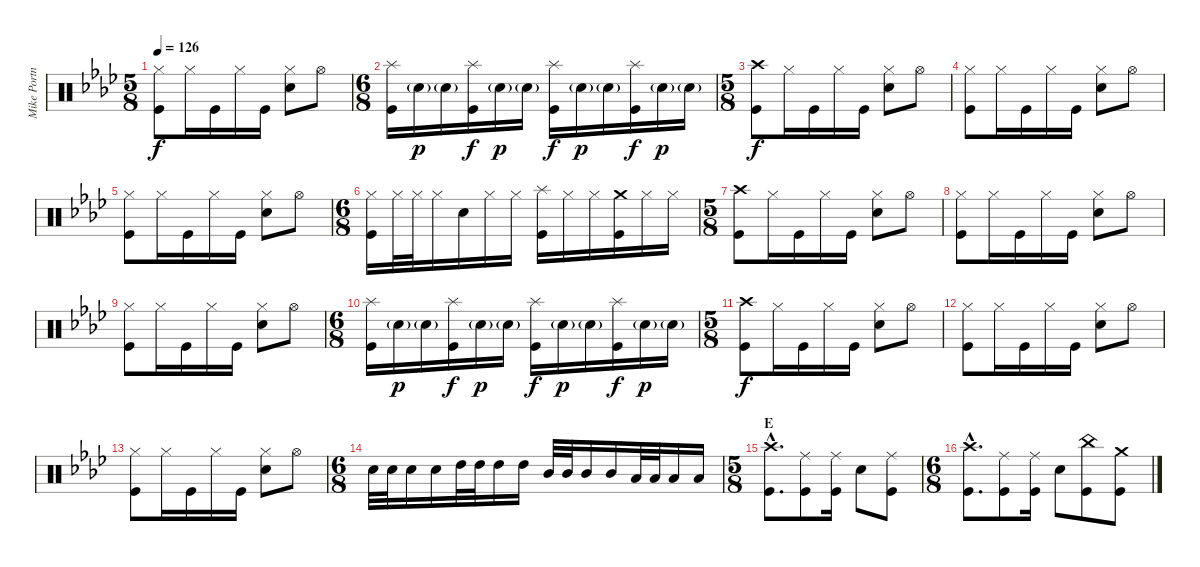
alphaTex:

\track ("Mike Portnoy" "Mike Portn") {instrument percussion}
\staff {score}
\articulation defaults
\ts (5 8)
\tempo 126
\clef neutral
\ks ab
("Hi-Hat (closed)" "Kick (hit)").8{dy f} "Hi-Hat (closed)".16 "Kick (hit)".16 "Hi-Hat (closed)".16 "Kick (hit)".16 ("Hi-Hat (closed)" "Electric Snare (hit)").8 "Hi-Hat (open)".8 |
\ts (6 8)
("Splash (hit)" "Kick (hit)").16 "Electric Snare (hit)"{g}.16{dy p} "Electric Snare (hit)"{g}.16 ("Splash (hit)" "Kick (hit)").16{dy f} "Electric Snare (hit)"{g}.16{dy p} "Electric Snare (hit)"{g}.16 ("Splash (hit)" "Kick (hit)").16{dy f} "Electric Snare (hit)"{g}.16{dy p} "Electric Snare (hit)"{g}.16 ("Splash (hit)" "Kick (hit)").16{dy f} "Electric Snare (hit)"{g}.16{dy p} "Electric Snare (hit)"{g}.16 |
\ts (5 8)
("Crash high (hit)" "Kick (hit)").8{dy f} "Hi-Hat (closed)".16 "Kick (hit)".16 "Hi-Hat (closed)".16 "Kick (hit)".16 ("Hi-Hat (closed)" "Electric Snare (hit)").8 "Hi-Hat (open)".8 |
("Hi-Hat (closed)" "Kick (hit)").8 "Hi-Hat (closed)".16 "Kick (hit)".16 "Hi-Hat (closed)".16 "Kick (hit)".16 ("Hi-Hat (closed)" "Electric Snare (hit)").8 "Hi-Hat (open)".8 |
("Hi-Hat (closed)" "Kick (hit)").8 "Hi-Hat (closed)".16 "Kick (hit)".16 "Hi-Hat (closed)".16 "Kick (hit)".16 ("Hi-Hat (closed)" "Electric Snare (hit)").8 "Hi-Hat (open)".8 |
\ts (6 8)
("Hi-Hat (closed)" "Kick (hit)").16 "Hi-Hat (closed)".32 "Hi-Hat (closed)".32 "Hi-Hat (closed)".16 "Electric Snare (hit)".16 "Hi-Hat (closed)".16 "Hi-Hat (closed)".16 ("Splash (hit)" "Kick (hit)").16 "Hi-Hat (closed)".16 "Hi-Hat (closed)".16 ("Crash medium (hit)" "Kick (hit)").16 "Hi-Hat (closed)".16 "Hi-Hat (closed)".16 |
\ts (5 8)
("Crash high (hit)" "Kick (hit)").8 "Hi-Hat (closed)".16 "Kick (hit)".16 "Hi-Hat (closed)".16 "Kick (hit)".16 ("Hi-Hat (closed)" "Electric Snare (hit)").8 "Hi-Hat (open)".8 |
("Hi-Hat (closed)" "Kick (hit)").8 "Hi-Hat (closed)".16 "Kick (hit)".16 "Hi-Hat (closed)".16 "Kick (hit)".16 ("Hi-Hat (closed)" "Electric Snare (hit)").8 "Hi-Hat (open)".8 |
("Hi-Hat (closed)" "Kick (hit)").8 "Hi-Hat (closed)".16 "Kick (hit)".16 "Hi-Hat (closed)".16 "Kick (hit)".16 ("Hi-Hat (closed)" "Electric Snare (hit)").8 "Hi-Hat (open)".8 |
\ts (6 8)
("Splash (hit)" "Kick (hit)").16 "Electric Snare (hit)"{g}.16{dy p} "Electric Snare (hit)"{g}.16 ("Splash (hit)" "Kick (hit)").16{dy f} "Electric Snare (hit)"{g}.16{dy p} "Electric Snare (hit)"{g}.16 ("Splash (hit)" "Kick (hit)").16{dy f} "Electric Snare (hit)"{g}.16{dy p} "Electric Snare (hit)"{g}.16 ("Splash (hit)" "Kick (hit)").16{dy f} "Electric Snare (hit)"{g}.16{dy p} "Electric Snare (hit)"{g}.16 |
\ts (5 8)
("Crash high (hit)" "Kick (hit)").8{dy f} "Hi-Hat (closed)".16 "Kick (hit)".16 "Hi-Hat (closed)".16 "Kick (hit)".16 ("Hi-Hat (closed)" "Electric Snare (hit)").8 "Hi-Hat (open)".8 |
("Hi-Hat (closed)" "Kick (hit)").8 "Hi-Hat (closed)".16 "Kick (hit)".16 "Hi-Hat (closed)".16 "Kick (hit)".16 ("Hi-Hat (closed)" "Electric Snare (hit)").8 "Hi-Hat (open)".8 |
("Hi-Hat (closed)" "Kick (hit)").8 "Hi-Hat (closed)".16 "Kick (hit)".16 "Hi-Hat (closed)".16 "Kick (hit)".16 ("Hi-Hat (closed)" "Electric Snare (hit)").8 "Hi-Hat (open)".8 |
\ts (6 8)
"Electric Snare (hit)".32 "Electric Snare (hit)".32 "Electric Snare (hit)".16 "Electric Snare (hit)".16 "High Tom (hit)".32 "High Tom (hit)".32 "High Tom (hit)".16 "High Tom (hit)".16 "Mid Tom (hit)".32 "Mid Tom (hit)".32 "Mid Tom (hit)".16 "Mid Tom (hit)".16 "Low Tom (hit)".32 "Low Tom (hit)".32 "Low Tom (hit)".16 "Low Tom (hit)".16 |
\ts (5 8)
\section ("" "E")
("Crash high (hit)"{hac} "Kick (hit)"{hac}).8{d} ("Ride (middle)" "Kick (hit)").8 ("Ride (middle)" "Kick (hit)").16 "Electric Snare (hit)".8 ("Ride (middle)" "Kick (hit)").8 |
\ts (6 8)
("Crash high (hit)"{hac} "Kick (hit)"{hac}).8{d} ("Ride (middle)" "Kick (hit)").8 ("Ride (middle)" "Kick (hit)").16 "Electric Snare (hit)".8 ("China (hit)" "Kick (hit)").8 ("Crash medium (hit)" "Kick (hit)").8
